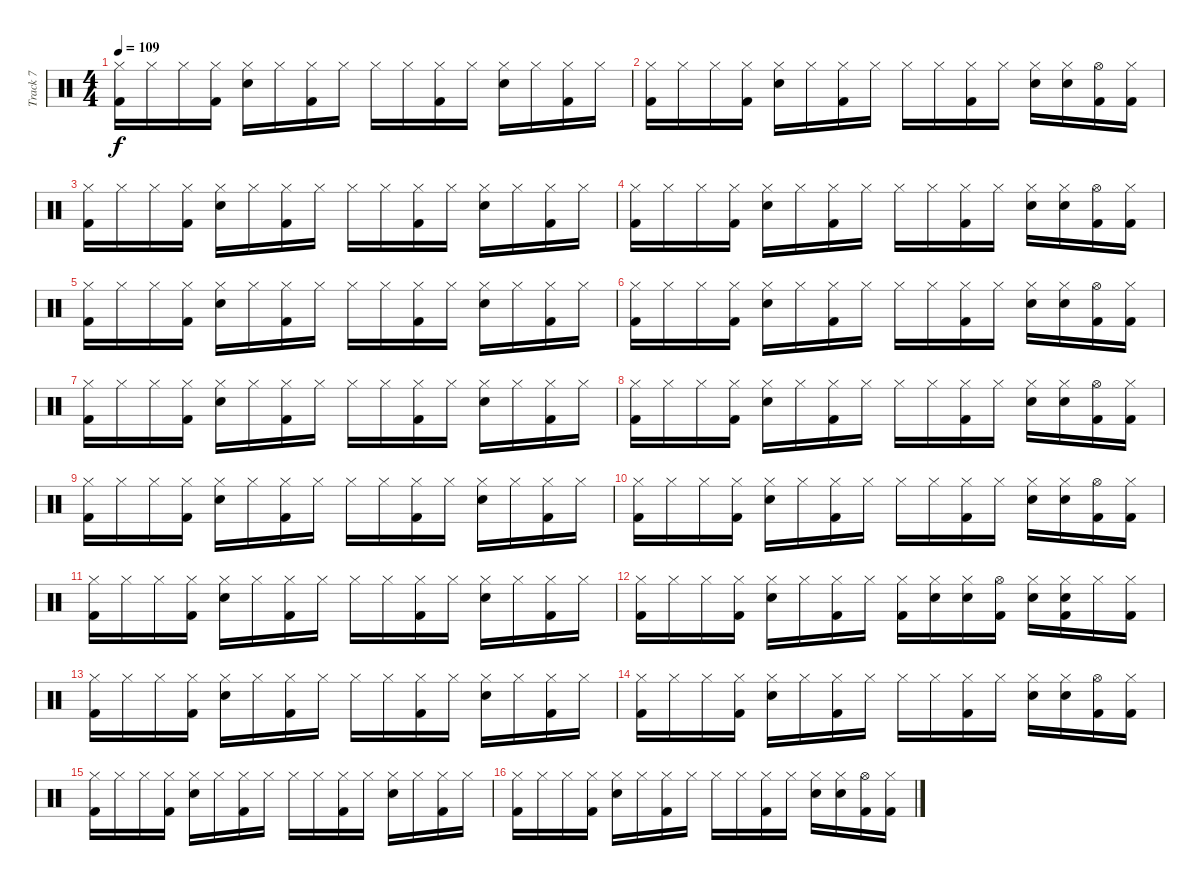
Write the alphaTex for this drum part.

\track ("Track 7" "Track 7") {instrument percussion}
\staff {score}
\articulation defaults
\ts (4 4)
\tempo 109
\clef neutral
\ks c
("Hi-Hat (closed)" "Kick (hit) 2").16{dy f} "Hi-Hat (closed)".16 "Hi-Hat (closed)".16 ("Hi-Hat (closed)" "Kick (hit) 2").16 ("Hi-Hat (closed)" "Snare (hit) 2").16 "Hi-Hat (closed)".16 ("Hi-Hat (closed)" "Kick (hit) 2").16 "Hi-Hat (closed)".16 "Hi-Hat (closed)".16 "Hi-Hat (closed)".16 ("Hi-Hat (closed)" "Kick (hit) 2").16 "Hi-Hat (closed)".16 ("Hi-Hat (closed)" "Snare (hit) 2").16 "Hi-Hat (closed)".16 ("Hi-Hat (closed)" "Kick (hit) 2").16 "Hi-Hat (closed)".16 |
("Hi-Hat (closed)" "Kick (hit) 2").16 "Hi-Hat (closed)".16 "Hi-Hat (closed)".16 ("Hi-Hat (closed)" "Kick (hit) 2").16 ("Hi-Hat (closed)" "Snare (hit) 2").16 "Hi-Hat (closed)".16 ("Hi-Hat (closed)" "Kick (hit) 2").16 "Hi-Hat (closed)".16 "Hi-Hat (closed)".16 "Hi-Hat (closed)".16 ("Hi-Hat (closed)" "Kick (hit) 2").16 "Hi-Hat (closed)".16 ("Hi-Hat (closed)" "Snare (hit) 2").16 ("Hi-Hat (closed)" "Snare (hit) 2").16 ("Hi-Hat (open)" "Kick (hit) 2").16 ("Hi-Hat (closed)" "Kick (hit) 2").16 |
("Hi-Hat (closed)" "Kick (hit) 2").16 "Hi-Hat (closed)".16 "Hi-Hat (closed)".16 ("Hi-Hat (closed)" "Kick (hit) 2").16 ("Hi-Hat (closed)" "Snare (hit) 2").16 "Hi-Hat (closed)".16 ("Hi-Hat (closed)" "Kick (hit) 2").16 "Hi-Hat (closed)".16 "Hi-Hat (closed)".16 "Hi-Hat (closed)".16 ("Hi-Hat (closed)" "Kick (hit) 2").16 "Hi-Hat (closed)".16 ("Hi-Hat (closed)" "Snare (hit) 2").16 "Hi-Hat (closed)".16 ("Hi-Hat (closed)" "Kick (hit) 2").16 "Hi-Hat (closed)".16 |
("Hi-Hat (closed)" "Kick (hit) 2").16 "Hi-Hat (closed)".16 "Hi-Hat (closed)".16 ("Hi-Hat (closed)" "Kick (hit) 2").16 ("Hi-Hat (closed)" "Snare (hit) 2").16 "Hi-Hat (closed)".16 ("Hi-Hat (closed)" "Kick (hit) 2").16 "Hi-Hat (closed)".16 "Hi-Hat (closed)".16 "Hi-Hat (closed)".16 ("Hi-Hat (closed)" "Kick (hit) 2").16 "Hi-Hat (closed)".16 ("Hi-Hat (closed)" "Snare (hit) 2").16 ("Hi-Hat (closed)" "Snare (hit) 2").16 ("Hi-Hat (open)" "Kick (hit) 2").16 ("Hi-Hat (closed)" "Kick (hit) 2").16 |
("Hi-Hat (closed)" "Kick (hit) 2").16 "Hi-Hat (closed)".16 "Hi-Hat (closed)".16 ("Hi-Hat (closed)" "Kick (hit) 2").16 ("Hi-Hat (closed)" "Snare (hit) 2").16 "Hi-Hat (closed)".16 ("Hi-Hat (closed)" "Kick (hit) 2").16 "Hi-Hat (closed)".16 "Hi-Hat (closed)".16 "Hi-Hat (closed)".16 ("Hi-Hat (closed)" "Kick (hit) 2").16 "Hi-Hat (closed)".16 ("Hi-Hat (closed)" "Snare (hit) 2").16 "Hi-Hat (closed)".16 ("Hi-Hat (closed)" "Kick (hit) 2").16 "Hi-Hat (closed)".16 |
("Hi-Hat (closed)" "Kick (hit) 2").16 "Hi-Hat (closed)".16 "Hi-Hat (closed)".16 ("Hi-Hat (closed)" "Kick (hit) 2").16 ("Hi-Hat (closed)" "Snare (hit) 2").16 "Hi-Hat (closed)".16 ("Hi-Hat (closed)" "Kick (hit) 2").16 "Hi-Hat (closed)".16 "Hi-Hat (closed)".16 "Hi-Hat (closed)".16 ("Hi-Hat (closed)" "Kick (hit) 2").16 "Hi-Hat (closed)".16 ("Hi-Hat (closed)" "Snare (hit) 2").16 ("Hi-Hat (closed)" "Snare (hit) 2").16 ("Hi-Hat (open)" "Kick (hit) 2").16 ("Hi-Hat (closed)" "Kick (hit) 2").16 |
("Hi-Hat (closed)" "Kick (hit) 2").16 "Hi-Hat (closed)".16 "Hi-Hat (closed)".16 ("Hi-Hat (closed)" "Kick (hit) 2").16 ("Hi-Hat (closed)" "Snare (hit) 2").16 "Hi-Hat (closed)".16 ("Hi-Hat (closed)" "Kick (hit) 2").16 "Hi-Hat (closed)".16 "Hi-Hat (closed)".16 "Hi-Hat (closed)".16 ("Hi-Hat (closed)" "Kick (hit) 2").16 "Hi-Hat (closed)".16 ("Hi-Hat (closed)" "Snare (hit) 2").16 "Hi-Hat (closed)".16 ("Hi-Hat (closed)" "Kick (hit) 2").16 "Hi-Hat (closed)".16 |
("Hi-Hat (closed)" "Kick (hit) 2").16 "Hi-Hat (closed)".16 "Hi-Hat (closed)".16 ("Hi-Hat (closed)" "Kick (hit) 2").16 ("Hi-Hat (closed)" "Snare (hit) 2").16 "Hi-Hat (closed)".16 ("Hi-Hat (closed)" "Kick (hit) 2").16 "Hi-Hat (closed)".16 "Hi-Hat (closed)".16 "Hi-Hat (closed)".16 ("Hi-Hat (closed)" "Kick (hit) 2").16 "Hi-Hat (closed)".16 ("Hi-Hat (closed)" "Snare (hit) 2").16 ("Hi-Hat (closed)" "Snare (hit) 2").16 ("Hi-Hat (open)" "Kick (hit) 2").16 ("Hi-Hat (closed)" "Kick (hit) 2").16 |
("Hi-Hat (closed)" "Kick (hit) 2").16 "Hi-Hat (closed)".16 "Hi-Hat (closed)".16 ("Hi-Hat (closed)" "Kick (hit) 2").16 ("Hi-Hat (closed)" "Snare (hit) 2").16 "Hi-Hat (closed)".16 ("Hi-Hat (closed)" "Kick (hit) 2").16 "Hi-Hat (closed)".16 "Hi-Hat (closed)".16 "Hi-Hat (closed)".16 ("Hi-Hat (closed)" "Kick (hit) 2").16 "Hi-Hat (closed)".16 ("Hi-Hat (closed)" "Snare (hit) 2").16 "Hi-Hat (closed)".16 ("Hi-Hat (closed)" "Kick (hit) 2").16 "Hi-Hat (closed)".16 |
("Hi-Hat (closed)" "Kick (hit) 2").16 "Hi-Hat (closed)".16 "Hi-Hat (closed)".16 ("Hi-Hat (closed)" "Kick (hit) 2").16 ("Hi-Hat (closed)" "Snare (hit) 2").16 "Hi-Hat (closed)".16 ("Hi-Hat (closed)" "Kick (hit) 2").16 "Hi-Hat (closed)".16 "Hi-Hat (closed)".16 "Hi-Hat (closed)".16 ("Hi-Hat (closed)" "Kick (hit) 2").16 "Hi-Hat (closed)".16 ("Hi-Hat (closed)" "Snare (hit) 2").16 ("Hi-Hat (closed)" "Snare (hit) 2").16 ("Hi-Hat (open)" "Kick (hit) 2").16 ("Hi-Hat (closed)" "Kick (hit) 2").16 |
("Hi-Hat (closed)" "Kick (hit) 2").16 "Hi-Hat (closed)".16 "Hi-Hat (closed)".16 ("Hi-Hat (closed)" "Kick (hit) 2").16 ("Hi-Hat (closed)" "Snare (hit) 2").16 "Hi-Hat (closed)".16 ("Hi-Hat (closed)" "Kick (hit) 2").16 "Hi-Hat (closed)".16 "Hi-Hat (closed)".16 "Hi-Hat (closed)".16 ("Hi-Hat (closed)" "Kick (hit) 2").16 "Hi-Hat (closed)".16 ("Hi-Hat (closed)" "Snare (hit) 2").16 "Hi-Hat (closed)".16 ("Hi-Hat (closed)" "Kick (hit) 2").16 "Hi-Hat (closed)".16 |
("Hi-Hat (closed)" "Kick (hit) 2").16 "Hi-Hat (closed)".16 "Hi-Hat (closed)".16 ("Hi-Hat (closed)" "Kick (hit) 2").16 ("Hi-Hat (closed)" "Snare (hit) 2").16 "Hi-Hat (closed)".16 ("Hi-Hat (closed)" "Kick (hit) 2").16 "Hi-Hat (closed)".16 ("Hi-Hat (closed)" "Kick (hit) 2").16 ("Hi-Hat (closed)" "Snare (hit) 2").16 ("Hi-Hat (closed)" "Snare (hit) 2").16 ("Hi-Hat (open)" "Kick (hit) 2").16 ("Hi-Hat (closed)" "Snare (hit) 2").16 ("Hi-Hat (closed)" "Snare (hit) 2" "Kick (hit) 2").16 "Hi-Hat (closed)".16 ("Hi-Hat (closed)" "Kick (hit) 2").16 |
("Hi-Hat (closed)" "Kick (hit) 2").16 "Hi-Hat (closed)".16 "Hi-Hat (closed)".16 ("Hi-Hat (closed)" "Kick (hit) 2").16 ("Hi-Hat (closed)" "Snare (hit) 2").16 "Hi-Hat (closed)".16 ("Hi-Hat (closed)" "Kick (hit) 2").16 "Hi-Hat (closed)".16 "Hi-Hat (closed)".16 "Hi-Hat (closed)".16 ("Hi-Hat (closed)" "Kick (hit) 2").16 "Hi-Hat (closed)".16 ("Hi-Hat (closed)" "Snare (hit) 2").16 "Hi-Hat (closed)".16 ("Hi-Hat (closed)" "Kick (hit) 2").16 "Hi-Hat (closed)".16 |
("Hi-Hat (closed)" "Kick (hit) 2").16 "Hi-Hat (closed)".16 "Hi-Hat (closed)".16 ("Hi-Hat (closed)" "Kick (hit) 2").16 ("Hi-Hat (closed)" "Snare (hit) 2").16 "Hi-Hat (closed)".16 ("Hi-Hat (closed)" "Kick (hit) 2").16 "Hi-Hat (closed)".16 "Hi-Hat (closed)".16 "Hi-Hat (closed)".16 ("Hi-Hat (closed)" "Kick (hit) 2").16 "Hi-Hat (closed)".16 ("Hi-Hat (closed)" "Snare (hit) 2").16 ("Hi-Hat (closed)" "Snare (hit) 2").16 ("Hi-Hat (open)" "Kick (hit) 2").16 ("Hi-Hat (closed)" "Kick (hit) 2").16 |
("Hi-Hat (closed)" "Kick (hit) 2").16 "Hi-Hat (closed)".16 "Hi-Hat (closed)".16 ("Hi-Hat (closed)" "Kick (hit) 2").16 ("Hi-Hat (closed)" "Snare (hit) 2").16 "Hi-Hat (closed)".16 ("Hi-Hat (closed)" "Kick (hit) 2").16 "Hi-Hat (closed)".16 "Hi-Hat (closed)".16 "Hi-Hat (closed)".16 ("Hi-Hat (closed)" "Kick (hit) 2").16 "Hi-Hat (closed)".16 ("Hi-Hat (closed)" "Snare (hit) 2").16 "Hi-Hat (closed)".16 ("Hi-Hat (closed)" "Kick (hit) 2").16 "Hi-Hat (closed)".16 |
("Hi-Hat (closed)" "Kick (hit) 2").16 "Hi-Hat (closed)".16 "Hi-Hat (closed)".16 ("Hi-Hat (closed)" "Kick (hit) 2").16 ("Hi-Hat (closed)" "Snare (hit) 2").16 "Hi-Hat (closed)".16 ("Hi-Hat (closed)" "Kick (hit) 2").16 "Hi-Hat (closed)".16 "Hi-Hat (closed)".16 "Hi-Hat (closed)".16 ("Hi-Hat (closed)" "Kick (hit) 2").16 "Hi-Hat (closed)".16 ("Hi-Hat (closed)" "Snare (hit) 2").16 ("Hi-Hat (closed)" "Snare (hit) 2").16 ("Hi-Hat (open)" "Kick (hit) 2").16 ("Hi-Hat (closed)" "Kick (hit) 2").16
